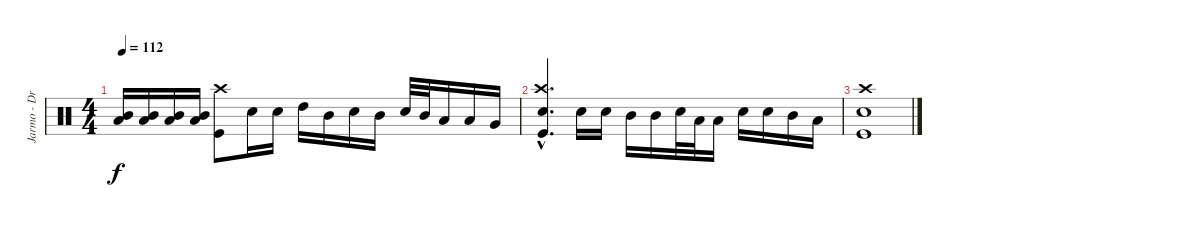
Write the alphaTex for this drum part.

\track ("Jarmo - Drummies" "Jarmo - Dr") {instrument percussion}
\staff {score}
\articulation defaults
\ts (4 4)
\tempo 112
\clef neutral
\ks c
("Mid Tom (hit)" "Low Tom (hit)").16{dy f} ("Mid Tom (hit)" "Low Tom (hit)").16 ("Mid Tom (hit)" "Low Tom (hit)").16 ("Mid Tom (hit)" "Low Tom (hit)").16 ("Kick (hit)" "Crash high (hit)").8 "Electric Snare (hit)".16 "Electric Snare (hit)".16 "High Tom (hit)".16 "Mid Tom (hit)".16 "Electric Snare (hit)".16 "Mid Tom (hit)".16 "Electric Snare (hit)".32 "Mid Tom (hit)".32 "Low Tom (hit)".16 "Low Tom (hit)".16 "Very Low Tom (hit)".16 |
("Crash high (hit)"{hac} "Electric Snare (hit)"{hac} "Kick (hit)"{hac}).4{d} "Electric Snare (hit)".16 "Electric Snare (hit)".16 "Mid Tom (hit)".16 "Mid Tom (hit)".16 "Electric Snare (hit)".32 "Low Tom (hit)".32 "Low Tom (hit)".16 "Electric Snare (hit)".16 "Electric Snare (hit)".16 "Mid Tom (hit)".16 "Low Tom (hit)".16 |
("Crash high (hit)" "Kick (hit)" "Electric Snare (hit)").1
